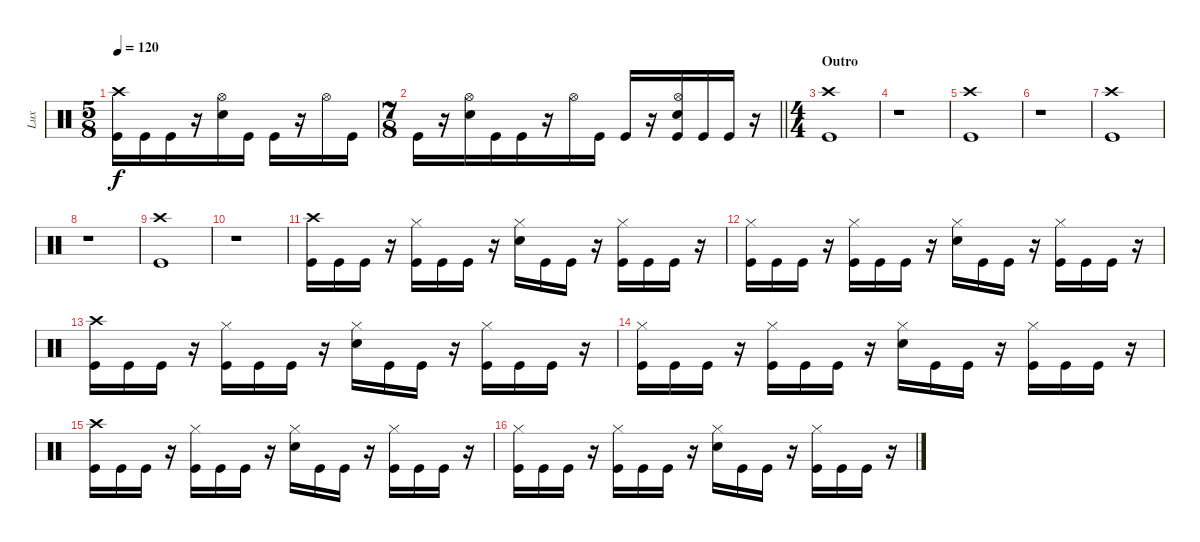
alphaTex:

\track ("Lux" "Lux") {solo instrument percussion}
\staff {score}
\articulation defaults
\ts (5 8)
\tempo 120
\clef neutral
\ks c
("Crash high (hit)" "Kick (hit)").16{dy f} "Kick (hit)".16 "Kick (hit)".16 r.16 ("Hi-Hat (open)" "Snare (hit) 2").16 "Kick (hit)".16 "Kick (hit)".16 r.16 "Hi-Hat (open)".16 "Kick (hit)".16 |
\ts (7 8)
\barLineRight lightlight "Kick (hit)".16
r.16 ("Hi-Hat (open)" "Snare (hit) 2").16 "Kick (hit)".16 "Kick (hit)".16 r.16 "Hi-Hat (open)".16 "Kick (hit)".16 "Kick (hit)".16 r.16 ("Hi-Hat (open)" "Snare (hit) 2" "Kick (hit)").16 "Kick (hit)".16 "Kick (hit)".16 r.16 |
\ts (4 4)
\section ("" "Outro")
("Crash high (hit)" "Kick (hit)").1 |
r.1 |
("Crash high (hit)" "Kick (hit)").1 |
r.1 |
("Crash high (hit)" "Kick (hit)").1 |
r.1 |
("Crash high (hit)" "Kick (hit)").1 |
r.1 |
("Crash high (hit)" "Kick (hit)").16 "Kick (hit)".16 "Kick (hit)".16 r.16 ("Hi-Hat (closed)" "Kick (hit)").16 "Kick (hit)".16 "Kick (hit)".16 r.16 ("Hi-Hat (closed)" "Snare (hit) 2").16 "Kick (hit)".16 "Kick (hit)".16 r.16 ("Hi-Hat (closed)" "Kick (hit)").16 "Kick (hit)".16 "Kick (hit)".16 r.16 |
("Hi-Hat (closed)" "Kick (hit)").16 "Kick (hit)".16 "Kick (hit)".16 r.16 ("Hi-Hat (closed)" "Kick (hit)").16 "Kick (hit)".16 "Kick (hit)".16 r.16 ("Hi-Hat (closed)" "Snare (hit) 2").16 "Kick (hit)".16 "Kick (hit)".16 r.16 ("Hi-Hat (closed)" "Kick (hit)").16 "Kick (hit)".16 "Kick (hit)".16 r.16 |
("Crash high (hit)" "Kick (hit)").16 "Kick (hit)".16 "Kick (hit)".16 r.16 ("Hi-Hat (closed)" "Kick (hit)").16 "Kick (hit)".16 "Kick (hit)".16 r.16 ("Hi-Hat (closed)" "Snare (hit) 2").16 "Kick (hit)".16 "Kick (hit)".16 r.16 ("Hi-Hat (closed)" "Kick (hit)").16 "Kick (hit)".16 "Kick (hit)".16 r.16 |
("Hi-Hat (closed)" "Kick (hit)").16 "Kick (hit)".16 "Kick (hit)".16 r.16 ("Hi-Hat (closed)" "Kick (hit)").16 "Kick (hit)".16 "Kick (hit)".16 r.16 ("Hi-Hat (closed)" "Snare (hit) 2").16 "Kick (hit)".16 "Kick (hit)".16 r.16 ("Hi-Hat (closed)" "Kick (hit)").16 "Kick (hit)".16 "Kick (hit)".16 r.16 |
("Crash high (hit)" "Kick (hit)").16 "Kick (hit)".16 "Kick (hit)".16 r.16 ("Hi-Hat (closed)" "Kick (hit)").16 "Kick (hit)".16 "Kick (hit)".16 r.16 ("Hi-Hat (closed)" "Snare (hit) 2").16 "Kick (hit)".16 "Kick (hit)".16 r.16 ("Hi-Hat (closed)" "Kick (hit)").16 "Kick (hit)".16 "Kick (hit)".16 r.16 |
("Hi-Hat (closed)" "Kick (hit)").16 "Kick (hit)".16 "Kick (hit)".16 r.16 ("Hi-Hat (closed)" "Kick (hit)").16 "Kick (hit)".16 "Kick (hit)".16 r.16 ("Hi-Hat (closed)" "Snare (hit) 2").16 "Kick (hit)".16 "Kick (hit)".16 r.16 ("Hi-Hat (closed)" "Kick (hit)").16 "Kick (hit)".16 "Kick (hit)".16 r.16
